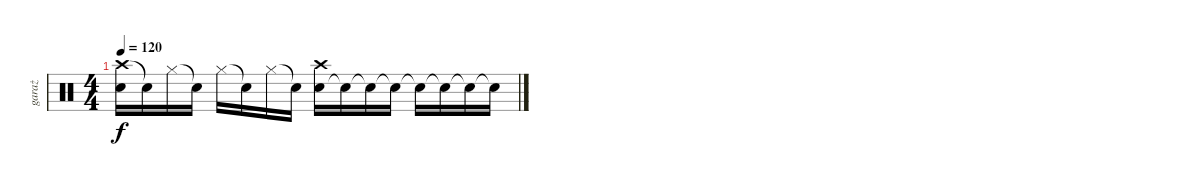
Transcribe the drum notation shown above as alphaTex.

\track ("garaż" "garaż") {instrument percussion}
\staff {score}
\articulation defaults
\ts (4 4)
\tempo 120
\clef neutral
\ks c
("Crash high (hit)" "Snare (hit) 2").16{dy f} "Snare (hit)"{t}.16 "Hi-Hat (closed)".16 "Snare (hit)"{t}.16 "Hi-Hat (closed)".16 "Snare (hit)"{t}.16 "Hi-Hat (closed)".16 "Snare (hit)"{t}.16 ("Snare (hit) 2" "Crash high (hit)").16 "Snare (hit)"{t}.16 "Snare (hit)"{t}.16 "Snare (hit)"{t}.16 "Snare (hit)"{t}.16 "Snare (hit)"{t}.16 "Snare (hit)"{t}.16 "Snare (hit)"{t}.16
